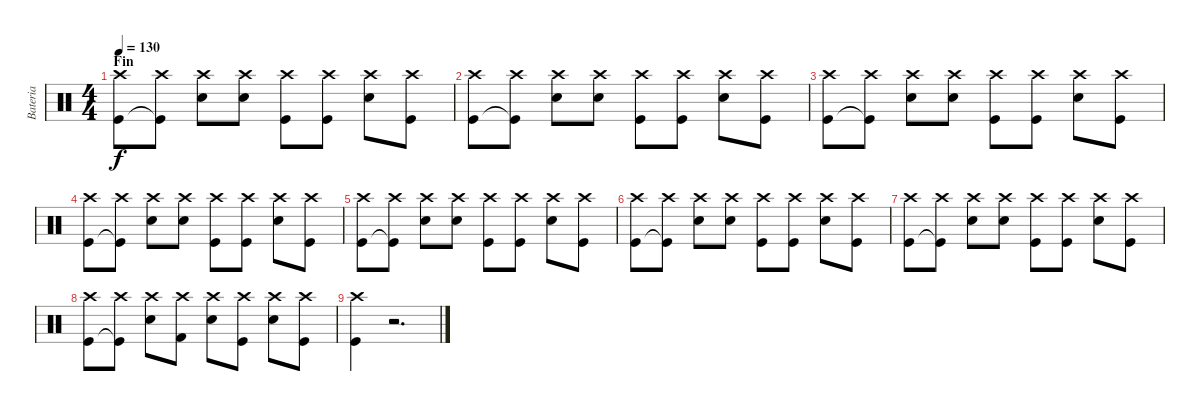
\track ("Bateria" "Bateria") {instrument percussion}
\staff {score}
\articulation defaults
\ts (4 4)
\section ("" "Fin")
\tempo 130
\clef neutral
\ks c
("Crash high (hit)" "Kick (hit)").8{dy f} ("Crash high (hit)" "Kick (hit)"{t}).8 ("Crash high (hit)" "Snare (hit) 2").8 ("Crash high (hit)" "Snare (hit) 2").8 ("Crash high (hit)" "Kick (hit)").8 ("Crash high (hit)" "Kick (hit)").8 ("Crash high (hit)" "Snare (hit) 2").8 ("Crash high (hit)" "Kick (hit)").8 |
("Crash high (hit)" "Kick (hit)").8 ("Crash high (hit)" "Kick (hit)"{t}).8 ("Crash high (hit)" "Snare (hit) 2").8 ("Crash high (hit)" "Snare (hit) 2").8 ("Crash high (hit)" "Kick (hit)").8 ("Crash high (hit)" "Kick (hit)").8 ("Crash high (hit)" "Snare (hit) 2").8 ("Crash high (hit)" "Kick (hit)").8 |
("Crash high (hit)" "Kick (hit)").8 ("Crash high (hit)" "Kick (hit)"{t}).8 ("Crash high (hit)" "Snare (hit) 2").8 ("Crash high (hit)" "Snare (hit) 2").8 ("Crash high (hit)" "Kick (hit)").8 ("Crash high (hit)" "Kick (hit)").8 ("Crash high (hit)" "Snare (hit) 2").8 ("Crash high (hit)" "Kick (hit)").8 |
("Crash high (hit)" "Kick (hit)").8 ("Crash high (hit)" "Kick (hit)"{t}).8 ("Crash high (hit)" "Snare (hit) 2").8 ("Crash high (hit)" "Snare (hit) 2").8 ("Crash high (hit)" "Kick (hit)").8 ("Crash high (hit)" "Kick (hit)").8 ("Crash high (hit)" "Snare (hit) 2").8 ("Crash high (hit)" "Kick (hit)").8 |
("Crash high (hit)" "Kick (hit)").8 ("Crash high (hit)" "Kick (hit)"{t}).8 ("Crash high (hit)" "Snare (hit) 2").8 ("Crash high (hit)" "Snare (hit) 2").8 ("Crash high (hit)" "Kick (hit)").8 ("Crash high (hit)" "Kick (hit)").8 ("Crash high (hit)" "Snare (hit) 2").8 ("Crash high (hit)" "Kick (hit)").8 |
("Crash high (hit)" "Kick (hit)").8 ("Crash high (hit)" "Kick (hit)"{t}).8 ("Crash high (hit)" "Snare (hit) 2").8 ("Crash high (hit)" "Snare (hit) 2").8 ("Crash high (hit)" "Kick (hit)").8 ("Crash high (hit)" "Kick (hit)").8 ("Crash high (hit)" "Snare (hit) 2").8 ("Crash high (hit)" "Kick (hit)").8 |
("Crash high (hit)" "Kick (hit)").8 ("Crash high (hit)" "Kick (hit)"{t}).8 ("Crash high (hit)" "Snare (hit) 2").8 ("Crash high (hit)" "Snare (hit) 2").8 ("Crash high (hit)" "Kick (hit)").8 ("Crash high (hit)" "Kick (hit)").8 ("Crash high (hit)" "Snare (hit) 2").8 ("Crash high (hit)" "Kick (hit)").8 |
("Crash high (hit)" "Kick (hit)").8 ("Crash high (hit)" "Kick (hit)"{t}).8 ("Crash high (hit)" "Snare (hit) 2").8 ("Crash high (hit)" "Kick (hit) 2").8 ("Crash high (hit)" "Snare (hit) 2").8 ("Crash high (hit)" "Kick (hit)").8 ("Crash high (hit)" "Snare (hit) 2").8 ("Crash high (hit)" "Kick (hit)").8 |
("Crash high (hit)" "Kick (hit)").4 r.2{d}
